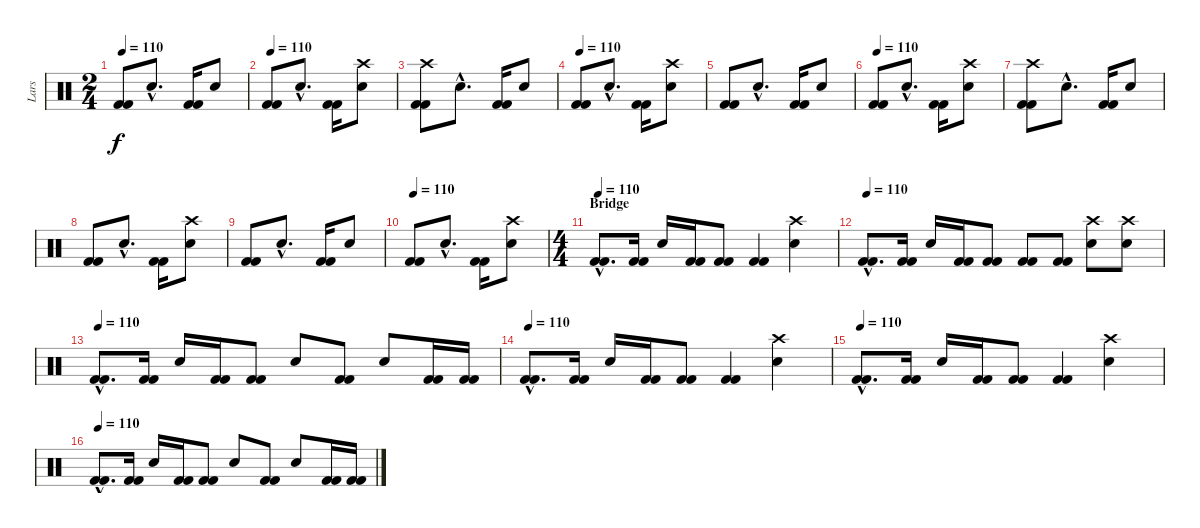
\track ("Lars" "Lars") {instrument percussion}
\staff {score}
\articulation defaults
\ts (2 4)
\tempo 110
\clef neutral
\ks c
("Kick (hit) 2" "Kick (hit) 2").8{dy f} "Snare (hit) 2"{hac}.8{d} ("Kick (hit) 2" "Kick (hit) 2").16 "Snare (hit) 2".8 |
\tempo 110
("Kick (hit) 2" "Kick (hit) 2").8 "Snare (hit) 2"{hac}.8{d} ("Kick (hit) 2" "Kick (hit) 2").16 ("Snare (hit) 2" "Crash high (hit)").8 |
("Crash high (hit)" "Kick (hit) 2" "Kick (hit) 2").8 "Snare (hit) 2"{hac}.8{d} ("Kick (hit) 2" "Kick (hit) 2").16 "Snare (hit) 2".8 |
\tempo 110
("Kick (hit) 2" "Kick (hit) 2").8 "Snare (hit) 2"{hac}.8{d} ("Kick (hit) 2" "Kick (hit) 2").16 ("Snare (hit) 2" "Crash high (hit)").8 |
("Kick (hit) 2" "Kick (hit) 2").8 "Snare (hit) 2"{hac}.8{d} ("Kick (hit) 2" "Kick (hit) 2").16 "Snare (hit) 2".8 |
\tempo 110
("Kick (hit) 2" "Kick (hit) 2").8 "Snare (hit) 2"{hac}.8{d} ("Kick (hit) 2" "Kick (hit) 2").16 ("Snare (hit) 2" "Crash high (hit)").8 |
("Crash high (hit)" "Kick (hit) 2" "Kick (hit) 2").8 "Snare (hit) 2"{hac}.8{d} ("Kick (hit) 2" "Kick (hit) 2").16 "Snare (hit) 2".8 |
("Kick (hit) 2" "Kick (hit) 2").8 "Snare (hit) 2"{hac}.8{d} ("Kick (hit) 2" "Kick (hit) 2").16 ("Snare (hit) 2" "Crash high (hit)").8 |
("Kick (hit) 2" "Kick (hit) 2").8 "Snare (hit) 2"{hac}.8{d} ("Kick (hit) 2" "Kick (hit) 2").16 "Snare (hit) 2".8 |
\tempo 110
("Kick (hit) 2" "Kick (hit) 2").8 "Snare (hit) 2"{hac}.8{d} ("Kick (hit) 2" "Kick (hit) 2").16 ("Snare (hit) 2" "Crash high (hit)").8 |
\ts (4 4)
\section ("" "Bridge")
\tempo 110
("Kick (hit) 2"{hac} "Kick (hit) 2"{hac}).8{d} ("Kick (hit) 2" "Kick (hit) 2").16 "Snare (hit) 2".16 ("Kick (hit) 2" "Kick (hit) 2").16 ("Kick (hit) 2" "Kick (hit) 2").8 ("Kick (hit) 2" "Kick (hit) 2").4 ("Snare (hit) 2" "Crash high (hit)").4 |
\tempo 110
("Kick (hit) 2"{hac} "Kick (hit) 2"{hac}).8{d} ("Kick (hit) 2" "Kick (hit) 2").16 "Snare (hit) 2".16 ("Kick (hit) 2" "Kick (hit) 2").16 ("Kick (hit) 2" "Kick (hit) 2").8 ("Kick (hit) 2" "Kick (hit) 2").8 ("Kick (hit) 2" "Kick (hit) 2").8 ("Snare (hit) 2" "Crash high (hit)").8 ("Snare (hit) 2" "Crash high (hit)").8 |
\tempo 110
("Kick (hit) 2"{hac} "Kick (hit) 2"{hac}).8{d} ("Kick (hit) 2" "Kick (hit) 2").16 "Snare (hit) 2".16 ("Kick (hit) 2" "Kick (hit) 2").16 ("Kick (hit) 2" "Kick (hit) 2").8 "Snare (hit) 2".8 ("Kick (hit) 2" "Kick (hit) 2").8 "Snare (hit) 2".8 ("Kick (hit) 2" "Kick (hit) 2").16 ("Kick (hit) 2" "Kick (hit) 2").16 |
\tempo 110
("Kick (hit) 2"{hac} "Kick (hit) 2"{hac}).8{d} ("Kick (hit) 2" "Kick (hit) 2").16 "Snare (hit) 2".16 ("Kick (hit) 2" "Kick (hit) 2").16 ("Kick (hit) 2" "Kick (hit) 2").8 ("Kick (hit) 2" "Kick (hit) 2").4 ("Snare (hit) 2" "Crash high (hit)").4 |
\tempo 110
("Kick (hit) 2"{hac} "Kick (hit) 2"{hac}).8{d} ("Kick (hit) 2" "Kick (hit) 2").16 "Snare (hit) 2".16 ("Kick (hit) 2" "Kick (hit) 2").16 ("Kick (hit) 2" "Kick (hit) 2").8 ("Kick (hit) 2" "Kick (hit) 2").4 ("Snare (hit) 2" "Crash high (hit)").4 |
\tempo 110
("Kick (hit) 2"{hac} "Kick (hit) 2"{hac}).8{d} ("Kick (hit) 2" "Kick (hit) 2").16 "Snare (hit) 2".16 ("Kick (hit) 2" "Kick (hit) 2").16 ("Kick (hit) 2" "Kick (hit) 2").8 "Snare (hit) 2".8 ("Kick (hit) 2" "Kick (hit) 2").8 "Snare (hit) 2".8 ("Kick (hit) 2" "Kick (hit) 2").16 ("Kick (hit) 2" "Kick (hit) 2").16
